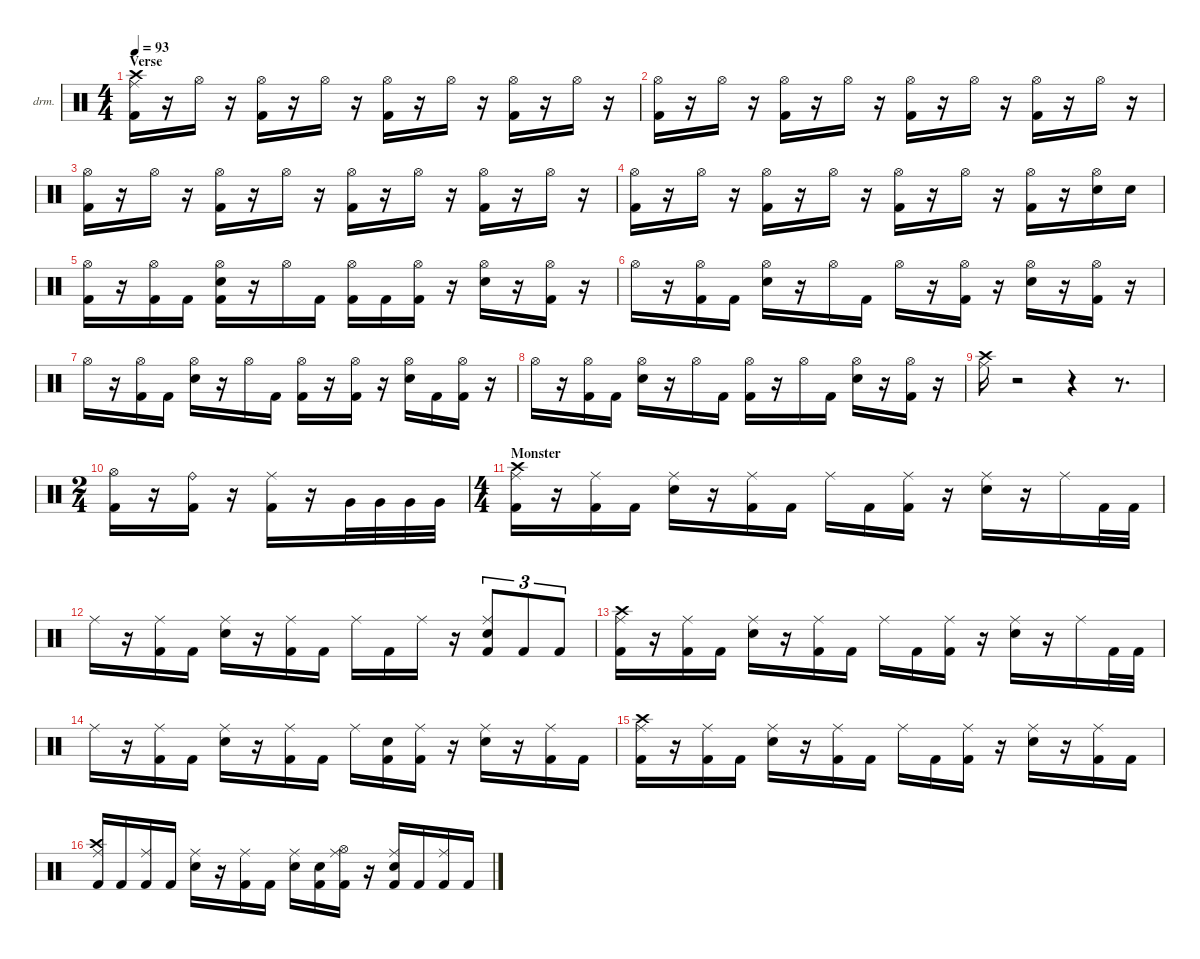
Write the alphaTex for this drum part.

\defaultSystemsLayout 2
\hideDynamics
\bracketExtendMode nobrackets
\firstSystemTrackNameOrientation horizontal
\otherSystemsTrackNameOrientation horizontal
\track ("Drumkit" "drm.") {instrument percussion}
\staff {score}
\articulation defaults
\ts (4 4)
\section ("" "Verse")
\scale
1.03043
\tempo 93
\accidentals auto
\clef neutral
\ottava regular
\simile none
\ks c
("Crash high (hit)"{acc #} "Ride (middle)"{acc #} "Kick (hit) 2").16{dy mf beam Down} r.16{beam Down} "Hi-Hat (open)"{acc #}.16{beam Down} r.16{beam Down} ("Kick (hit) 2" "Hi-Hat (open)"{acc #}).16{beam Down} r.16{beam Down} "Hi-Hat (open)"{acc #}.16{beam Down} r.16{beam Down} ("Kick (hit) 2" "Hi-Hat (open)"{acc #}).16{beam Down} r.16{beam Down} "Hi-Hat (open)"{acc #}.16{beam Down} r.16{beam Down} ("Hi-Hat (open)"{acc #} "Kick (hit) 2").16{beam Down} r.16{beam Down} "Hi-Hat (open)"{acc #}.16{beam Down} r.16{beam Down} |
\scale
0.969568 ("Kick (hit) 2" "Hi-Hat (open)"{acc #}).16{beam Down} r.16{beam Down} "Hi-Hat (open)"{acc #}.16{beam Down} r.16{beam Down} ("Kick (hit) 2" "Hi-Hat (open)"{acc #}).16{beam Down} r.16{beam Down} "Hi-Hat (open)"{acc #}.16{beam Down} r.16{beam Down} ("Kick (hit) 2" "Hi-Hat (open)"{acc #}).16{beam Down} r.16{beam Down} "Hi-Hat (open)"{acc #}.16{beam Down} r.16{beam Down} ("Hi-Hat (open)"{acc #} "Kick (hit) 2").16{beam Down} r.16{beam Down} "Hi-Hat (open)"{acc #}.16{beam Down} r.16{beam Down} |
\scale
1.03043 ("Hi-Hat (open)"{acc #} "Kick (hit) 2").16{beam Down} r.16{beam Down} "Hi-Hat (open)"{acc #}.16{beam Down} r.16{beam Down} ("Kick (hit) 2" "Hi-Hat (open)"{acc #}).16{beam Down} r.16{beam Down} "Hi-Hat (open)"{acc #}.16{beam Down} r.16{beam Down} ("Kick (hit) 2" "Hi-Hat (open)"{acc #}).16{beam Down} r.16{beam Down} "Hi-Hat (open)"{acc #}.16{beam Down} r.16{beam Down} ("Kick (hit) 2" "Hi-Hat (open)"{acc #}).16{beam Down} r.16{beam Down} "Hi-Hat (open)"{acc #}.16{beam Down} r.16{beam Down} |
\scale
0.969568 ("Hi-Hat (open)"{acc #} "Kick (hit) 2").16{beam Down} r.16{beam Down} "Hi-Hat (open)"{acc #}.16{beam Down} r.16{beam Down} ("Hi-Hat (open)"{acc #} "Kick (hit) 2").16{beam Down} r.16{beam Down} "Hi-Hat (open)"{acc #}.16{beam Down} r.16{beam Down} ("Kick (hit) 2" "Hi-Hat (open)"{acc #}).16{beam Down} r.16{beam Down} "Hi-Hat (open)"{acc #}.16{beam Down} r.16{beam Down} ("Hi-Hat (open)"{acc #} "Kick (hit) 2").16{beam Down} r.16{beam Down} ("Hi-Hat (open)"{acc #} "Snare (hit) 2").16{beam Down} "Snare (hit) 2".16{beam Down} |
\scale
1.09695 ("Kick (hit) 2" "Hi-Hat (open)"{acc #}).16{beam Down} r.16{beam Down} ("Hi-Hat (open)"{acc #} "Kick (hit) 2").16{beam Down} "Kick (hit) 2".16{beam Down} ("Snare (hit) 2" "Kick (hit) 2" "Hi-Hat (open)"{acc #}).16{beam Down} r.16{beam Down} "Hi-Hat (open)"{acc #}.16{beam Down} "Kick (hit) 2".16{beam Down} ("Hi-Hat (open)"{acc #} "Kick (hit) 2").16{beam Down} "Kick (hit) 2".16{beam Down} ("Kick (hit) 2" "Hi-Hat (open)"{acc #}).16{beam Down} r.16{beam Down} ("Snare (hit) 2" "Hi-Hat (open)"{acc #}).16{beam Down} r.16{beam Down} ("Kick (hit) 2" "Hi-Hat (open)"{acc #}).16{beam Down} r.16{beam Down} |
"Hi-Hat (open)"{acc #}.16{beam Down} r.16{beam Down} ("Kick (hit) 2" "Hi-Hat (open)"{acc #}).16{beam Down} "Kick (hit) 2".16{beam Down} ("Snare (hit) 2" "Hi-Hat (open)"{acc #}).16{beam Down} r.16{beam Down} "Hi-Hat (open)"{acc #}.16{beam Down} "Kick (hit) 2".16{beam Down} "Hi-Hat (open)"{acc #}.16{beam Down} r.16{beam Down} ("Hi-Hat (open)"{acc #} "Kick (hit) 2").16{beam Down} r.16{beam Down} ("Hi-Hat (open)"{acc #} "Snare (hit) 2").16{beam Down} r.16{beam Down} ("Kick (hit) 2" "Hi-Hat (open)"{acc #}).16{beam Down} r.16{beam Down} |
"Hi-Hat (open)"{acc #}.16{beam Down} r.16{beam Down} ("Hi-Hat (open)"{acc #} "Kick (hit) 2").16{beam Down} "Kick (hit) 2".16{beam Down} ("Snare (hit) 2" "Hi-Hat (open)"{acc #}).16{beam Down} r.16{beam Down} "Hi-Hat (open)"{acc #}.16{beam Down} "Kick (hit) 2".16{beam Down} ("Kick (hit) 2" "Hi-Hat (open)"{acc #}).16{beam Down} r.16{beam Down} ("Kick (hit) 2" "Hi-Hat (open)"{acc #}).16{beam Down} r.16{beam Down} ("Snare (hit) 2" "Hi-Hat (open)"{acc #}).16{beam Down} "Kick (hit) 2".16{beam Down} ("Hi-Hat (open)"{acc #} "Kick (hit) 2").16{beam Down} r.16{beam Down} |
"Hi-Hat (open)"{acc #}.16{beam Down} r.16{beam Down} ("Kick (hit) 2" "Hi-Hat (open)"{acc #}).16{beam Down} "Kick (hit) 2".16{beam Down} ("Hi-Hat (open)"{acc #} "Snare (hit) 2").16{beam Down} r.16{beam Down} "Hi-Hat (open)"{acc #}.16{beam Down} "Kick (hit) 2".16{beam Down} ("Kick (hit) 2" "Hi-Hat (open)"{acc #}).16{beam Down} r.16{beam Down} "Hi-Hat (open)"{acc #}.16{beam Down} "Kick (hit) 2".16{beam Down} ("Snare (hit) 2" "Hi-Hat (open)"{acc #}).16{beam Down} r.16{beam Down} ("Hi-Hat (open)"{acc #} "Kick (hit) 2").16{beam Down} r.16{beam Down} |
("Crash high (hit)"{acc #} "Ride (middle)"{acc #}).16{beam Down} r.2{beam Down} r.4{beam Down} r.8{d beam Down} |
\ts (2 4)
\beaming (8 2 2)
("Kick (hit) 2" "Hi-Hat (open)"{acc #}).16{beam Down} r.16{beam Down} ("Kick (hit) 2" "Ride (bell)").16{beam Down} r.16{beam Down} ("Kick (hit) 2" "Ride (middle)"{acc #}).16{beam Down} r.16{beam Down} "Very Low Tom (hit)".32{beam Up} "Very Low Tom (hit)".32{beam Up} "Very Low Tom (hit)".32{beam Up} "Very Low Tom (hit)".32{beam Up} |
\ts (4 4)
\beaming (8 2 2 2 2)
\section ("" "Monster")
("Crash high (hit)"{acc #} "Kick (hit) 2" "Ride (middle)"{acc #}).16{beam Down} r.16{beam Down} ("Kick (hit) 2" "Ride (middle)"{acc #}).16{beam Down} "Kick (hit) 2".16{beam Down} ("Ride (middle)"{acc #} "Snare (hit) 2").16{beam Down} r.16{beam Down} ("Ride (middle)"{acc #} "Kick (hit) 2").16{beam Down} "Kick (hit) 2".16{beam Down} "Ride (middle)"{acc #}.16{beam Down} "Kick (hit) 2".16{beam Down} ("Ride (middle)"{acc #} "Kick (hit) 2").16{beam Down} r.16{beam Down} ("Snare (hit) 2" "Ride (middle)"{acc #}).16{beam Down} r.16{beam Down} "Ride (middle)"{acc #}.16{beam Down} "Kick (hit) 2".32{beam Down} "Kick (hit) 2".32{beam Down} |
"Ride (middle)"{acc #}.16{beam Down} r.16{beam Down} ("Ride (middle)"{acc #} "Kick (hit) 2").16{beam Down} "Kick (hit) 2".16{beam Down} ("Snare (hit) 2" "Ride (middle)"{acc #}).16{beam Down} r.16{beam Down} ("Kick (hit) 2" "Ride (middle)"{acc #}).16{beam Down} "Kick (hit) 2".16{beam Down} "Ride (middle)"{acc #}.16{beam Down} "Kick (hit) 2".16{beam Down} "Ride (middle)"{acc #}.16{beam Down} r.16{beam Down} ("Ride (middle)"{acc #} "Snare (hit) 2" "Kick (hit) 2").8{tu (3 2) beam Up} "Kick (hit) 2".8{tu (3 2) beam Up} "Kick (hit) 2".8{tu (3 2) beam Up} |
("Ride (middle)"{acc #} "Kick (hit) 2" "Crash high (hit)"{acc #}).16{beam Down} r.16{beam Down} ("Ride (middle)"{acc #} "Kick (hit) 2").16{beam Down} "Kick (hit) 2".16{beam Down} ("Snare (hit) 2" "Ride (middle)"{acc #}).16{beam Down} r.16{beam Down} ("Kick (hit) 2" "Ride (middle)"{acc #}).16{beam Down} "Kick (hit) 2".16{beam Down} "Ride (middle)"{acc #}.16{beam Down} "Kick (hit) 2".16{beam Down} ("Kick (hit) 2" "Ride (middle)"{acc #}).16{beam Down} r.16{beam Down} ("Snare (hit) 2" "Ride (middle)"{acc #}).16{beam Down} r.16{beam Down} "Ride (middle)"{acc #}.16{beam Down} "Kick (hit) 2".32{beam Down} "Kick (hit) 2".32{beam Down} |
"Ride (middle)"{acc #}.16{beam Down} r.16{beam Down} ("Kick (hit) 2" "Ride (middle)"{acc #}).16{beam Down} "Kick (hit) 2".16{beam Down} ("Snare (hit) 2" "Ride (middle)"{acc #}).16{beam Down} r.16{beam Down} ("Ride (middle)"{acc #} "Kick (hit) 2").16{beam Down} "Kick (hit) 2".16{beam Down} "Ride (middle)"{acc #}.16{beam Down} ("Snare (hit) 2" "Kick (hit) 2").16{beam Down} ("Ride (middle)"{acc #} "Kick (hit) 2").16{beam Down} r.16{beam Down} ("Snare (hit) 2" "Ride (middle)"{acc #}).16{beam Down} r.16{beam Down} ("Ride (middle)"{acc #} "Kick (hit) 2").16{beam Down} "Kick (hit) 2".16{beam Down} |
("Crash high (hit)"{acc #} "Kick (hit) 2" "Ride (middle)"{acc #}).16{beam Down} r.16{beam Down} ("Kick (hit) 2" "Ride (middle)"{acc #}).16{beam Down} "Kick (hit) 2".16{beam Down} ("Snare (hit) 2" "Ride (middle)"{acc #}).16{beam Down} r.16{beam Down} ("Ride (middle)"{acc #} "Kick (hit) 2").16{beam Down} "Kick (hit) 2".16{beam Down} "Ride (middle)"{acc #}.16{beam Down} "Kick (hit) 2".16{beam Down} ("Ride (middle)"{acc #} "Kick (hit) 2").16{beam Down} r.16{beam Down} ("Ride (middle)"{acc #} "Snare (hit) 2").16{beam Down} r.16{beam Down} ("Ride (middle)"{acc #} "Kick (hit) 2").16{beam Down} "Kick (hit) 2".16{beam Down} |
("Kick (hit) 2" "Crash high (hit)"{acc #} "Ride (middle)"{acc #}).16{beam Up} "Kick (hit) 2".16{beam Up} ("Kick (hit) 2" "Ride (middle)"{acc #}).16{beam Up} "Kick (hit) 2".16{beam Up} ("Ride (middle)"{acc #} "Snare (hit) 2").16{beam Down} r.16{beam Down} ("Ride (middle)"{acc #} "Kick (hit) 2").16{beam Down} "Kick (hit) 2".16{beam Down} ("Snare (hit) 2" "Ride (middle)"{acc #}).16{beam Down} ("Snare (hit) 2" "Kick (hit) 2").16{beam Down} ("Ride (middle)"{acc #} "Hi-Hat (open)"{acc #} "Kick (hit) 2").16{beam Down} r.16{beam Down} ("Snare (hit) 2" "Ride (middle)"{acc #} "Kick (hit) 2").16{beam Up} "Kick (hit) 2".16{beam Up} ("Kick (hit) 2" "Ride (middle)"{acc #}).16{beam Up} "Kick (hit) 2".16{beam Up}
